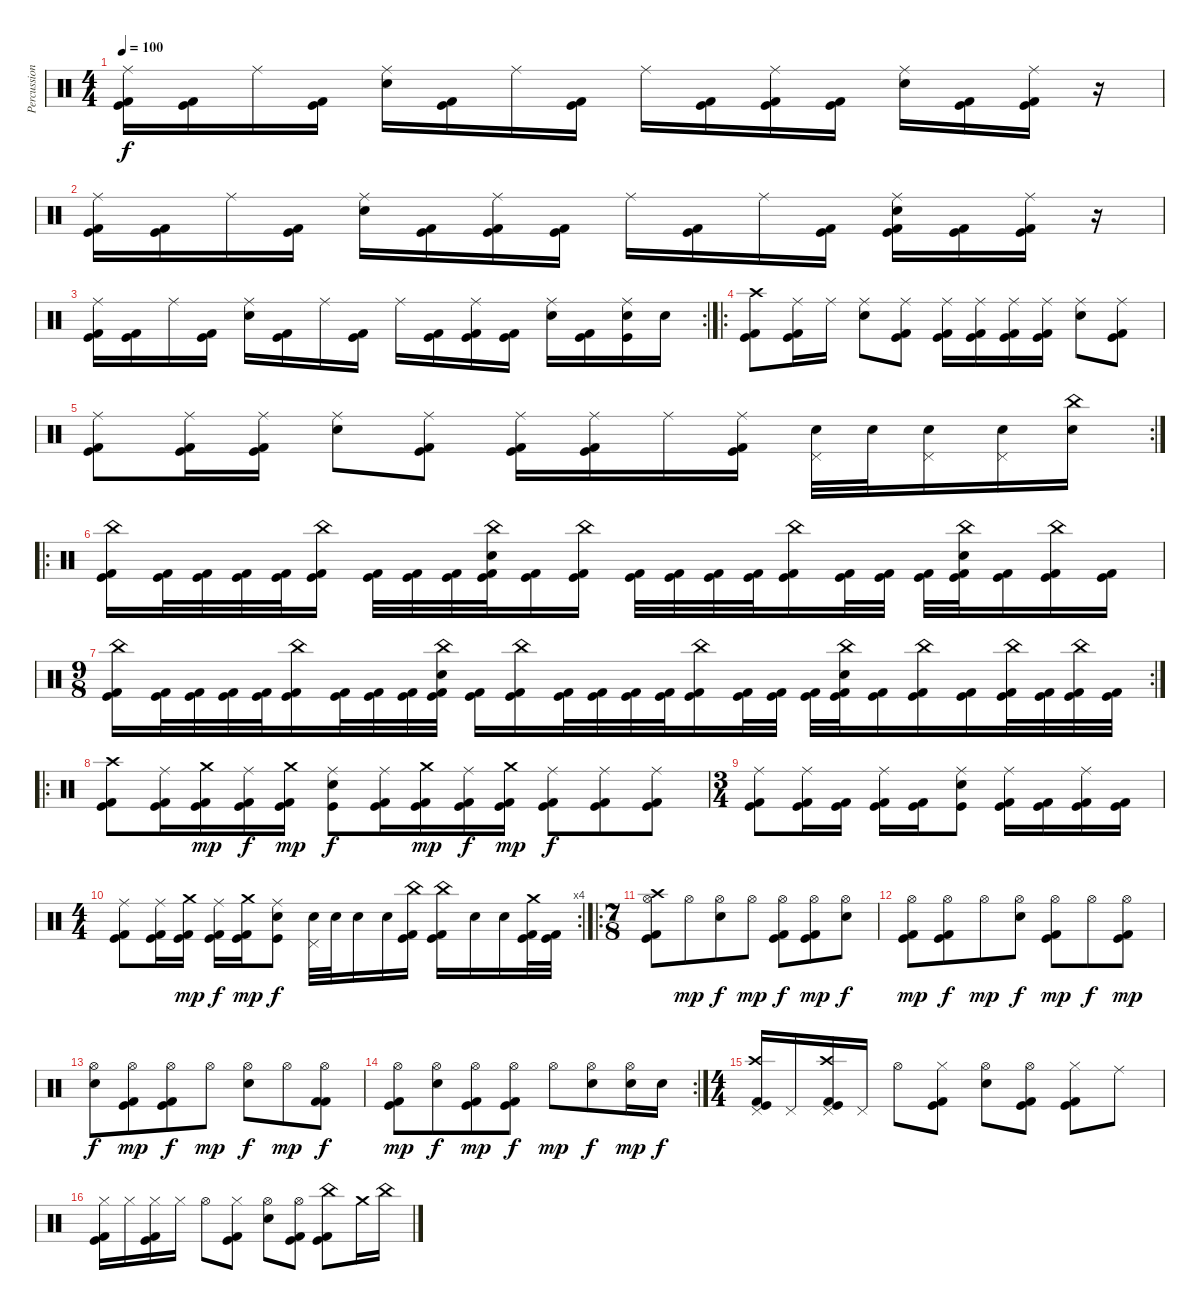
\track ("Percussion" "Percussion") {instrument percussion}
\staff {score}
\articulation defaults
\ts (4 4)
\tempo 100
\clef neutral
\ks c
("Ride (middle)" "Kick (hit) 2" "Kick (hit)").16{dy f} ("Kick (hit) 2" "Kick (hit)").16 "Ride (middle)".16 ("Kick (hit) 2" "Kick (hit)").16 ("Ride (middle)" "Snare (hit) 2").16 ("Kick (hit) 2" "Kick (hit)").16 "Ride (middle)".16 ("Kick (hit) 2" "Kick (hit)").16 "Ride (middle)".16 ("Kick (hit) 2" "Kick (hit)").16 ("Ride (middle)" "Kick (hit) 2" "Kick (hit)").16 ("Kick (hit) 2" "Kick (hit)").16 ("Ride (middle)" "Snare (hit) 2").16 ("Kick (hit) 2" "Kick (hit)").16 ("Ride (middle)" "Kick (hit) 2" "Kick (hit)").16 r.16 |
("Ride (middle)" "Kick (hit) 2" "Kick (hit)").16 ("Kick (hit) 2" "Kick (hit)").16 "Ride (middle)".16 ("Kick (hit) 2" "Kick (hit)").16 ("Ride (middle)" "Snare (hit) 2").16 ("Kick (hit) 2" "Kick (hit)").16 ("Ride (middle)" "Kick (hit) 2" "Kick (hit)").16 ("Kick (hit) 2" "Kick (hit)").16 "Ride (middle)".16 ("Kick (hit) 2" "Kick (hit)").16 "Ride (middle)".16 ("Kick (hit) 2" "Kick (hit)").16 ("Ride (middle)" "Snare (hit) 2" "Kick (hit) 2" "Kick (hit)").16 ("Kick (hit) 2" "Kick (hit)").16 ("Ride (middle)" "Kick (hit) 2" "Kick (hit)").16 r.16 |
\rc 2
("Ride (middle)" "Kick (hit) 2" "Kick (hit)").16 ("Kick (hit) 2" "Kick (hit)").16 "Ride (middle)".16 ("Kick (hit) 2" "Kick (hit)").16 ("Ride (middle)" "Snare (hit) 2").16 ("Kick (hit) 2" "Kick (hit)").16 "Ride (middle)".16 ("Kick (hit) 2" "Kick (hit)").16 "Ride (middle)".16 ("Kick (hit) 2" "Kick (hit)").16 ("Ride (middle)" "Kick (hit) 2" "Kick (hit)").16 ("Kick (hit) 2" "Kick (hit)").16 ("Ride (middle)" "Snare (hit) 2").16 ("Kick (hit) 2" "Kick (hit)").16 ("Ride (middle)" "Snare (hit) 2" "Kick (hit)").16 "Snare (hit) 2".16 |
\ro
("Crash high (hit)" "Kick (hit) 2" "Kick (hit)").8 ("Ride (middle)" "Kick (hit) 2" "Kick (hit)").16 "Ride (middle)".16 ("Ride (middle)" "Snare (hit) 2").8 ("Ride (middle)" "Kick (hit) 2" "Kick (hit)").8 ("Ride (middle)" "Kick (hit) 2" "Kick (hit)").16 ("Ride (middle)" "Kick (hit) 2" "Kick (hit)").16 ("Ride (middle)" "Kick (hit) 2" "Kick (hit)").16 ("Ride (middle)" "Kick (hit) 2" "Kick (hit)").16 ("Ride (middle)" "Snare (hit) 2").8 ("Ride (middle)" "Kick (hit) 2" "Kick (hit)").8 |
\rc 2
("Ride (middle)" "Kick (hit) 2" "Kick (hit)").8 ("Ride (middle)" "Kick (hit) 2" "Kick (hit)").16 ("Ride (middle)" "Kick (hit) 2" "Kick (hit)").16 ("Ride (middle)" "Snare (hit) 2").8 ("Ride (middle)" "Kick (hit) 2" "Kick (hit)").8 ("Ride (middle)" "Kick (hit) 2" "Kick (hit)").16 ("Ride (middle)" "Kick (hit) 2" "Kick (hit)").16 "Ride (middle)".16 ("Ride (middle)" "Kick (hit) 2" "Kick (hit)").16 ("Pedal Hi-Hat (hit)" "Snare (hit) 2").32 "Snare (hit) 2".32 ("Pedal Hi-Hat (hit)" "Snare (hit) 2").16 ("Pedal Hi-Hat (hit)" "Snare (hit) 2").16 ("China (hit)" "Snare (hit) 2").16 |
\ro
("China (hit)" "Kick (hit) 2" "Kick (hit)").16 ("Kick (hit) 2" "Kick (hit)").32 ("Kick (hit) 2" "Kick (hit)").32 ("Kick (hit) 2" "Kick (hit)").32 ("Kick (hit) 2" "Kick (hit)").32 ("China (hit)" "Kick (hit) 2" "Kick (hit)").16 ("Kick (hit) 2" "Kick (hit)").32 ("Kick (hit) 2" "Kick (hit)").32 ("Kick (hit) 2" "Kick (hit)").32 ("China (hit)" "Snare (hit) 2" "Kick (hit) 2" "Kick (hit)").32 ("Kick (hit) 2" "Kick (hit)").16 ("China (hit)" "Kick (hit) 2" "Kick (hit)").16 ("Kick (hit) 2" "Kick (hit)").32 ("Kick (hit) 2" "Kick (hit)").32 ("Kick (hit) 2" "Kick (hit)").32 ("Kick (hit) 2" "Kick (hit)").32 ("China (hit)" "Kick (hit) 2" "Kick (hit)").16 ("Kick (hit) 2" "Kick (hit)").32 ("Kick (hit) 2" "Kick (hit)").32 ("Kick (hit) 2" "Kick (hit)").32 ("China (hit)" "Snare (hit) 2" "Kick (hit) 2" "Kick (hit)").32 ("Kick (hit) 2" "Kick (hit)").16 ("China (hit)" "Kick (hit) 2" "Kick (hit)").16 ("Kick (hit) 2" "Kick (hit)").16 |
\rc 2
\ts (9 8)
("China (hit)" "Kick (hit) 2" "Kick (hit)").16 ("Kick (hit) 2" "Kick (hit)").32 ("Kick (hit) 2" "Kick (hit)").32 ("Kick (hit) 2" "Kick (hit)").32 ("Kick (hit) 2" "Kick (hit)").32 ("China (hit)" "Kick (hit) 2" "Kick (hit)").16 ("Kick (hit) 2" "Kick (hit)").32 ("Kick (hit) 2" "Kick (hit)").32 ("Kick (hit) 2" "Kick (hit)").32 ("China (hit)" "Snare (hit) 2" "Kick (hit) 2" "Kick (hit)").32 ("Kick (hit) 2" "Kick (hit)").16 ("China (hit)" "Kick (hit) 2" "Kick (hit)").16 ("Kick (hit) 2" "Kick (hit)").32 ("Kick (hit) 2" "Kick (hit)").32 ("Kick (hit) 2" "Kick (hit)").32 ("Kick (hit) 2" "Kick (hit)").32 ("China (hit)" "Kick (hit) 2" "Kick (hit)").16 ("Kick (hit) 2" "Kick (hit)").32 ("Kick (hit) 2" "Kick (hit)").32 ("Kick (hit) 2" "Kick (hit)").32 ("China (hit)" "Snare (hit) 2" "Kick (hit) 2" "Kick (hit)").32 ("Kick (hit) 2" "Kick (hit)").16 ("China (hit)" "Kick (hit) 2" "Kick (hit)").16 ("Kick (hit) 2" "Kick (hit)").16 ("China (hit)" "Kick (hit) 2" "Kick (hit)").32 ("Kick (hit) 2" "Kick (hit)").32 ("China (hit)" "Kick (hit) 2" "Kick (hit)").32 ("Kick (hit) 2" "Kick (hit)").32 |
\ro
("Crash high (hit)" "Kick (hit) 2" "Kick (hit)").8 ("Ride (middle)" "Kick (hit) 2" "Kick (hit)").16 ("Crash medium (hit)" "Kick (hit) 2" "Kick (hit)").16{dy mp} ("Ride (middle)" "Kick (hit) 2" "Kick (hit)").16{dy f} ("Crash medium (hit)" "Kick (hit) 2" "Kick (hit)").16{dy mp} ("Ride (middle)" "Snare (hit) 2" "Kick (hit)").8{dy f} ("Ride (middle)" "Kick (hit) 2" "Kick (hit)").16 ("Crash medium (hit)" "Kick (hit) 2" "Kick (hit)").16{dy mp} ("Ride (middle)" "Kick (hit) 2" "Kick (hit)").16{dy f} ("Crash medium (hit)" "Kick (hit) 2" "Kick (hit)").16{dy mp} ("Ride (middle)" "Kick (hit) 2" "Kick (hit)").8{dy f} ("Ride (middle)" "Kick (hit) 2" "Kick (hit)").8 ("Ride (middle)" "Kick (hit) 2" "Kick (hit)").8 |
\ts (3 4)
("Ride (middle)" "Kick (hit) 2" "Kick (hit)").8 ("Ride (middle)" "Kick (hit) 2" "Kick (hit)").16 ("Kick (hit) 2" "Kick (hit)").16 ("Ride (middle)" "Kick (hit) 2" "Kick (hit)").16 ("Kick (hit) 2" "Kick (hit)").16 ("Ride (middle)" "Snare (hit) 2" "Kick (hit)").8 ("Ride (middle)" "Kick (hit) 2" "Kick (hit)").16 ("Kick (hit) 2" "Kick (hit)").16 ("Ride (middle)" "Kick (hit) 2" "Kick (hit)").16 ("Kick (hit) 2" "Kick (hit)").16 |
\rc 4
\ts (4 4)
("Ride (middle)" "Kick (hit) 2" "Kick (hit)").8 ("Ride (middle)" "Kick (hit) 2" "Kick (hit)").16 ("Crash medium (hit)" "Kick (hit) 2" "Kick (hit)").16{dy mp} ("Ride (middle)" "Kick (hit) 2" "Kick (hit)").16{dy f} ("Crash medium (hit)" "Kick (hit) 2" "Kick (hit)").16{dy mp} ("Ride (middle)" "Snare (hit) 2" "Kick (hit)").8{dy f} ("Pedal Hi-Hat (hit)" "Snare (hit) 2").32 "Snare (hit) 2".32 "Snare (hit) 2".16 "Snare (hit) 2".16 ("China (hit)" "Kick (hit) 2" "Kick (hit)").16 ("China (hit)" "Kick (hit) 2" "Kick (hit)").16 "Snare (hit) 2".16 "Snare (hit) 2".16 ("Crash medium (hit)" "Kick (hit) 2" "Kick (hit)").32 ("Kick (hit) 2" "Kick (hit)").32 |
\ro
\ts (7 8)
("Hi-Hat (open)" "Crash high (hit)" "Kick (hit) 2" "Kick (hit)").8{volume 14} "Hi-Hat (open)".8{dy mp} ("Hi-Hat (open)" "Snare (hit) 2").8{dy f} "Hi-Hat (open)".8{dy mp} ("Hi-Hat (open)" "Kick (hit) 2" "Kick (hit)").8{dy f} ("Hi-Hat (open)" "Kick (hit) 2" "Kick (hit)").8{dy mp} ("Hi-Hat (open)" "Snare (hit) 2").8{dy f} |
("Hi-Hat (open)" "Kick (hit) 2" "Kick (hit)").8{dy mp} ("Hi-Hat (open)" "Kick (hit) 2" "Kick (hit)").8{dy f} "Hi-Hat (open)".8{dy mp} ("Hi-Hat (open)" "Snare (hit) 2").8{dy f} ("Hi-Hat (open)" "Kick (hit) 2" "Kick (hit)").8{dy mp} "Hi-Hat (open)".8{dy f} ("Hi-Hat (open)" "Kick (hit) 2" "Kick (hit)").8{dy mp} |
("Hi-Hat (open)" "Snare (hit) 2").8{dy f} ("Hi-Hat (open)" "Kick (hit) 2" "Kick (hit)").8{dy mp} ("Hi-Hat (open)" "Kick (hit) 2" "Kick (hit)").8{dy f} "Hi-Hat (open)".8{dy mp} ("Hi-Hat (open)" "Snare (hit) 2").8{dy f} "Hi-Hat (open)".8{dy mp} ("Hi-Hat (open)" "Kick (hit) 2" "Kick (hit) 2").8{dy f} |
\rc 2
("Hi-Hat (open)" "Kick (hit) 2" "Kick (hit)").8{dy mp} ("Hi-Hat (open)" "Snare (hit) 2").8{dy f} ("Hi-Hat (open)" "Kick (hit) 2" "Kick (hit)").8{dy mp} ("Hi-Hat (open)" "Kick (hit) 2" "Kick (hit)").8{dy f} "Hi-Hat (open)".8{dy mp} ("Hi-Hat (open)" "Snare (hit) 2").8{dy f} ("Hi-Hat (open)" "Snare (hit) 2").16{dy mp} "Snare (hit) 2".16{dy f} |
\ts (4 4)
("Pedal Hi-Hat (hit)" "Crash high (hit)" "Kick (hit) 2" "Kick (hit)").16 "Pedal Hi-Hat (hit)".16 ("Pedal Hi-Hat (hit)" "Crash high (hit)" "Kick (hit) 2" "Kick (hit)").16 "Pedal Hi-Hat (hit)".16 "Hi-Hat (open)".8 ("Hi-Hat (closed)" "Kick (hit) 2" "Kick (hit)").8 ("Hi-Hat (open)" "Snare (hit) 2").8 ("Hi-Hat (open)" "Kick (hit) 2" "Kick (hit)").8 ("Hi-Hat (closed)" "Kick (hit) 2" "Kick (hit)").8 "Ride (middle)".8 |
("Hi-Hat (closed)" "Kick (hit) 2" "Kick (hit)").16 "Hi-Hat (closed)".16 ("Hi-Hat (closed)" "Kick (hit) 2" "Kick (hit)").16 "Hi-Hat (closed)".16 "Hi-Hat (open)".8 ("Hi-Hat (closed)" "Kick (hit) 2" "Kick (hit)").8 ("Hi-Hat (open)" "Snare (hit) 2").8 ("Hi-Hat (open)" "Kick (hit) 2" "Kick (hit)").8 ("China (hit)" "Kick (hit) 2" "Kick (hit)").8 "Crash medium (hit)".16 "China (hit)".16
